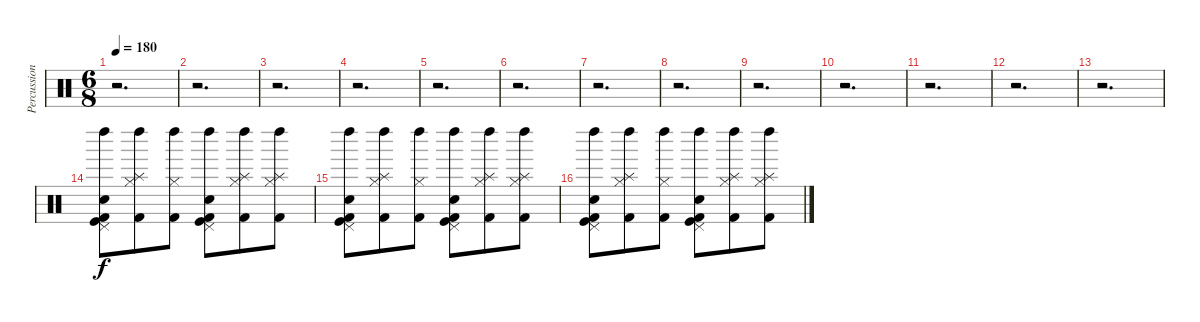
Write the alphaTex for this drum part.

\track ("Percussion" "Percussion") {instrument percussion}
\staff {score}
\articulation defaults
\ts (6 8)
\tempo 180
\clef neutral
\ks c
r.2{d dy f} |
r.2{d} |
r.2{d} |
r.2{d} |
r.2{d} |
r.2{d} |
r.2{d} |
r.2{d} |
r.2{d} |
r.2{d} |
r.2{d} |
r.2{d} |
r.2{d} |
("Snare (hit) 2" "Kick (hit) 2" "Pedal Hi-Hat (hit)" "Kick (hit)" "Left Maraca (hit)").8 ("Hi-Hat (closed)" "Kick (hit) 2" "Splash (hit)" "Left Maraca (hit)").8 ("Kick (hit) 2" "Hi-Hat (closed)" "Left Maraca (hit)").8 ("Snare (hit) 2" "Kick (hit) 2" "Pedal Hi-Hat (hit)" "Kick (hit)" "Left Maraca (hit)").8 ("Hi-Hat (closed)" "Kick (hit) 2" "Splash (hit)" "Left Maraca (hit)").8 ("Kick (hit) 2" "Hi-Hat (closed)" "Splash (hit)" "Left Maraca (hit)").8 |
("Snare (hit) 2" "Kick (hit) 2" "Pedal Hi-Hat (hit)" "Kick (hit)" "Left Maraca (hit)").8 ("Hi-Hat (closed)" "Kick (hit) 2" "Splash (hit)" "Left Maraca (hit)").8 ("Kick (hit) 2" "Hi-Hat (closed)" "Left Maraca (hit)").8 ("Snare (hit) 2" "Kick (hit) 2" "Pedal Hi-Hat (hit)" "Kick (hit)" "Left Maraca (hit)").8 ("Hi-Hat (closed)" "Kick (hit) 2" "Splash (hit)" "Left Maraca (hit)").8 ("Kick (hit) 2" "Hi-Hat (closed)" "Splash (hit)" "Left Maraca (hit)").8 |
("Snare (hit) 2" "Kick (hit) 2" "Pedal Hi-Hat (hit)" "Kick (hit)" "Left Maraca (hit)").8 ("Hi-Hat (closed)" "Kick (hit) 2" "Splash (hit)" "Left Maraca (hit)").8 ("Kick (hit) 2" "Hi-Hat (closed)" "Left Maraca (hit)").8 ("Snare (hit) 2" "Kick (hit) 2" "Pedal Hi-Hat (hit)" "Kick (hit)" "Left Maraca (hit)").8 ("Hi-Hat (closed)" "Kick (hit) 2" "Splash (hit)" "Left Maraca (hit)").8 ("Kick (hit) 2" "Hi-Hat (closed)" "Splash (hit)" "Left Maraca (hit)").8
